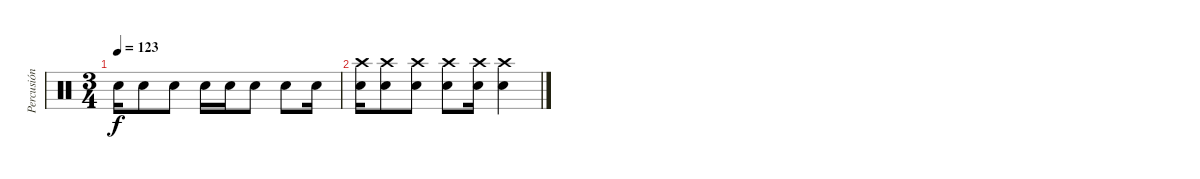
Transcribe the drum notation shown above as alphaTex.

\track ("Percusión" "Percusión") {instrument percussion}
\staff {score}
\articulation defaults
\ts (3 4)
\tempo 123
\clef neutral
\ks c "Electric Snare (hit)".16{dy f} "Electric Snare (hit)".8 "Electric Snare (hit)".8 "Electric Snare (hit)".16 "Electric Snare (hit)".16 "Electric Snare (hit)".8 "Electric Snare (hit)".8 "Electric Snare (hit)".16
|
("Crash high (hit)" "Electric Snare (hit)").16 ("Crash high (hit)" "Electric Snare (hit)").8 ("Crash high (hit)" "Electric Snare (hit)").8 ("Crash high (hit)" "Electric Snare (hit)").8 ("Crash high (hit)" "Electric Snare (hit)").16 ("Crash high (hit)" "Electric Snare (hit)").4
